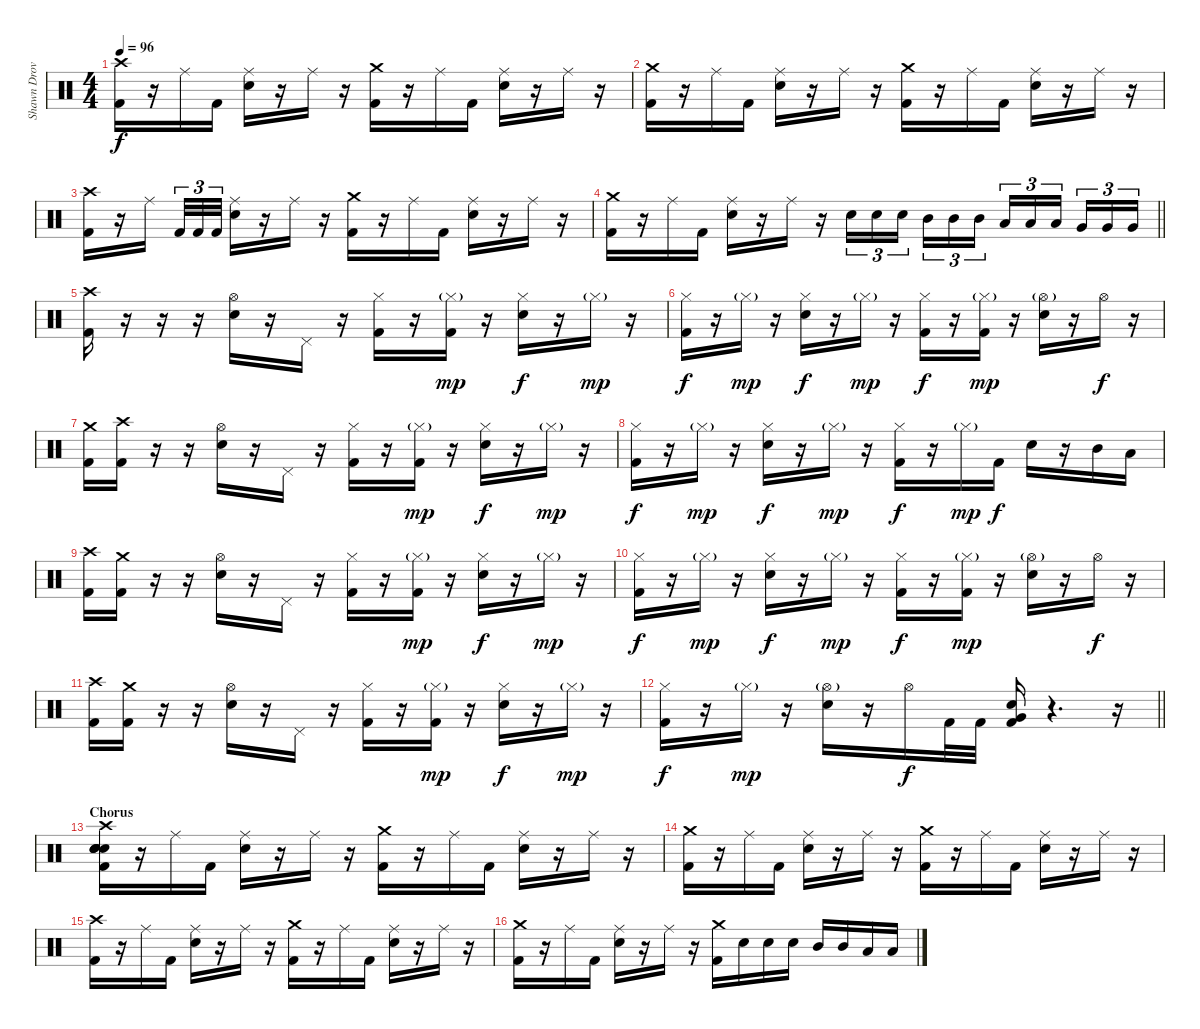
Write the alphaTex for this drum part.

\track ("Shawn Drover" "Shawn Drov") {instrument percussion}
\staff {score}
\articulation defaults
\ts (4 4)
\tempo 96
\clef neutral
\ks c
("Crash high (hit)" "Kick (hit) 2").16{dy f} r.16 "Ride (middle)".16 "Kick (hit) 2".16 ("Ride (middle)" "Snare (hit) 2").16 r.16 "Ride (middle)".16 r.16 ("Crash medium (hit)" "Kick (hit) 2").16 r.16 "Ride (middle)".16 "Kick (hit) 2".16 ("Ride (middle)" "Snare (hit) 2").16 r.16 "Ride (middle)".16 r.16 |
("Crash medium (hit)" "Kick (hit) 2").16 r.16 "Ride (middle)".16 "Kick (hit) 2".16 ("Ride (middle)" "Snare (hit) 2").16 r.16 "Ride (middle)".16 r.16 ("Crash medium (hit)" "Kick (hit) 2").16 r.16 "Ride (middle)".16 "Kick (hit) 2".16 ("Ride (middle)" "Snare (hit) 2").16 r.16 "Ride (middle)".16 r.16 |
("Crash high (hit)" "Kick (hit) 2").16 r.16 "Ride (middle)".16{beam splitsecondary} "Kick (hit) 2".32{tu (3 2)} "Kick (hit) 2".32{tu (3 2)} "Kick (hit) 2".32{tu (3 2)} ("Ride (middle)" "Snare (hit) 2").16 r.16 "Ride (middle)".16 r.16 ("Crash medium (hit)" "Kick (hit) 2").16 r.16 "Ride (middle)".16 "Kick (hit) 2".16 ("Ride (middle)" "Snare (hit) 2").16 r.16 "Ride (middle)".16 r.16 |
\barLineRight lightlight
("Crash medium (hit)" "Kick (hit) 2").16 r.16 "Ride (middle)".16 "Kick (hit) 2".16 ("Ride (middle)" "Snare (hit) 2").16 r.16 "Ride (middle)".16 r.16 "Snare (hit) 2".16{tu (3 2)} "Snare (hit) 2".16{tu (3 2)} "Snare (hit) 2".16{tu (3 2) beam splitsecondary} "Mid Tom (hit)".16{tu (3 2)} "Mid Tom (hit)".16{tu (3 2)} "Mid Tom (hit)".16{tu (3 2)} "Low Tom (hit)".16{tu (3 2)} "Low Tom (hit)".16{tu (3 2)} "Low Tom (hit)".16{tu (3 2) beam splitsecondary} "Very Low Tom (hit)".16{tu (3 2)} "Very Low Tom (hit)".16{tu (3 2)} "Very Low Tom (hit)".16{tu (3 2)} |
("Crash high (hit)" "Kick (hit) 2").16 r.16 r.16 r.16 ("Hi-Hat (open)" "Snare (hit) 2").16 r.16 "Pedal Hi-Hat (hit)".16 r.16 ("Hi-Hat (closed)" "Kick (hit) 2").16 r.16 ("Hi-Hat (closed)"{g} "Kick (hit) 2").16{dy mp} r.16 ("Hi-Hat (closed)" "Snare (hit) 2").16{dy f} r.16 "Hi-Hat (closed)"{g}.16{dy mp} r.16 |
("Hi-Hat (closed)" "Kick (hit) 2").16{dy f} r.16 "Hi-Hat (closed)"{g}.16{dy mp} r.16 ("Hi-Hat (closed)" "Snare (hit) 2").16{dy f} r.16 "Hi-Hat (closed)"{g}.16{dy mp} r.16 ("Hi-Hat (closed)" "Kick (hit) 2").16{dy f} r.16 ("Hi-Hat (closed)"{g} "Kick (hit) 2").16{dy mp} r.16 ("Hi-Hat (open)"{g} "Snare (hit) 2").16 r.16 "Hi-Hat (open)".16{dy f} r.16 |
("Crash medium (hit)" "Kick (hit) 2").16 ("Crash high (hit)" "Kick (hit) 2").16 r.16 r.16 ("Hi-Hat (open)" "Snare (hit) 2").16 r.16 "Pedal Hi-Hat (hit)".16 r.16 ("Hi-Hat (closed)" "Kick (hit) 2").16 r.16 ("Hi-Hat (closed)"{g} "Kick (hit) 2").16{dy mp} r.16 ("Hi-Hat (closed)" "Snare (hit) 2").16{dy f} r.16 "Hi-Hat (closed)"{g}.16{dy mp} r.16 |
("Hi-Hat (closed)" "Kick (hit) 2").16{dy f} r.16 "Hi-Hat (closed)"{g}.16{dy mp} r.16 ("Hi-Hat (closed)" "Snare (hit) 2").16{dy f} r.16 "Hi-Hat (closed)"{g}.16{dy mp} r.16 ("Hi-Hat (closed)" "Kick (hit) 2").16{dy f} r.16 "Hi-Hat (closed)"{g}.16{dy mp} "Kick (hit) 2".16{dy f} "Snare (hit) 2".16 r.16 "Mid Tom (hit)".16 "Low Tom (hit)".16 |
("Crash high (hit)" "Kick (hit) 2").16 ("Crash medium (hit)" "Kick (hit) 2").16 r.16 r.16 ("Hi-Hat (open)" "Snare (hit) 2").16 r.16 "Pedal Hi-Hat (hit)".16 r.16 ("Hi-Hat (closed)" "Kick (hit) 2").16 r.16 ("Hi-Hat (closed)"{g} "Kick (hit) 2").16{dy mp} r.16 ("Hi-Hat (closed)" "Snare (hit) 2").16{dy f} r.16 "Hi-Hat (closed)"{g}.16{dy mp} r.16 |
("Hi-Hat (closed)" "Kick (hit) 2").16{dy f} r.16 "Hi-Hat (closed)"{g}.16{dy mp} r.16 ("Hi-Hat (closed)" "Snare (hit) 2").16{dy f} r.16 "Hi-Hat (closed)"{g}.16{dy mp} r.16 ("Hi-Hat (closed)" "Kick (hit) 2").16{dy f} r.16 ("Hi-Hat (closed)"{g} "Kick (hit) 2").16{dy mp} r.16 ("Hi-Hat (open)"{g} "Snare (hit) 2").16 r.16 "Hi-Hat (open)".16{dy f} r.16 |
("Crash high (hit)" "Kick (hit) 2").16 ("Crash medium (hit)" "Kick (hit) 2").16 r.16 r.16 ("Hi-Hat (open)" "Snare (hit) 2").16 r.16 "Pedal Hi-Hat (hit)".16 r.16 ("Hi-Hat (closed)" "Kick (hit) 2").16 r.16 ("Hi-Hat (closed)"{g} "Kick (hit) 2").16{dy mp} r.16 ("Hi-Hat (closed)" "Snare (hit) 2").16{dy f} r.16 "Hi-Hat (closed)"{g}.16{dy mp} r.16 |
\barLineRight lightlight
("Hi-Hat (closed)" "Kick (hit) 2").16{dy f} r.16 "Hi-Hat (closed)"{g}.16{dy mp} r.16 ("Hi-Hat (open)"{g} "Snare (hit) 2").16 r.16 "Hi-Hat (open)".16{dy f} "Kick (hit) 2".32 "Kick (hit) 2".32 ("Very Low Tom (hit)" "Snare (hit) 2" "Kick (hit) 2").16 r.4{d} r.16 |
\section ("" "Chorus")
("Crash high (hit)" "Snare (hit)" "Snare (hit)" "Snare (hit)" "Snare (hit) 2" "Kick (hit) 2").16{volume 16} r.16 "Ride (middle)".16{volume 13} "Kick (hit) 2".16 ("Ride (middle)" "Snare (hit) 2").16 r.16 "Ride (middle)".16 r.16 ("Crash medium (hit)" "Kick (hit) 2").16 r.16 "Ride (middle)".16 "Kick (hit) 2".16 ("Ride (middle)" "Snare (hit) 2").16 r.16 "Ride (middle)".16 r.16 |
("Crash medium (hit)" "Kick (hit) 2").16 r.16 "Ride (middle)".16 "Kick (hit) 2".16 ("Ride (middle)" "Snare (hit) 2").16 r.16 "Ride (middle)".16 r.16 ("Crash medium (hit)" "Kick (hit) 2").16 r.16 "Ride (middle)".16 "Kick (hit) 2".16 ("Ride (middle)" "Snare (hit) 2").16 r.16 "Ride (middle)".16 r.16 |
("Crash high (hit)" "Kick (hit) 2").16 r.16 "Ride (middle)".16 "Kick (hit) 2".16 ("Ride (middle)" "Snare (hit) 2").16 r.16 "Ride (middle)".16 r.16 ("Crash medium (hit)" "Kick (hit) 2").16 r.16 "Ride (middle)".16 "Kick (hit) 2".16 ("Ride (middle)" "Snare (hit) 2").16 r.16 "Ride (middle)".16 r.16 |
("Crash medium (hit)" "Kick (hit) 2").16 r.16 "Ride (middle)".16 "Kick (hit) 2".16 ("Ride (middle)" "Snare (hit) 2").16 r.16 "Ride (middle)".16 r.16 ("Crash medium (hit)" "Kick (hit) 2").16 "Snare (hit) 2".16 "Snare (hit) 2".16 "Snare (hit) 2".16 "Mid Tom (hit)".16 "Mid Tom (hit)".16 "Low Tom (hit)".16 "Low Tom (hit)".16
